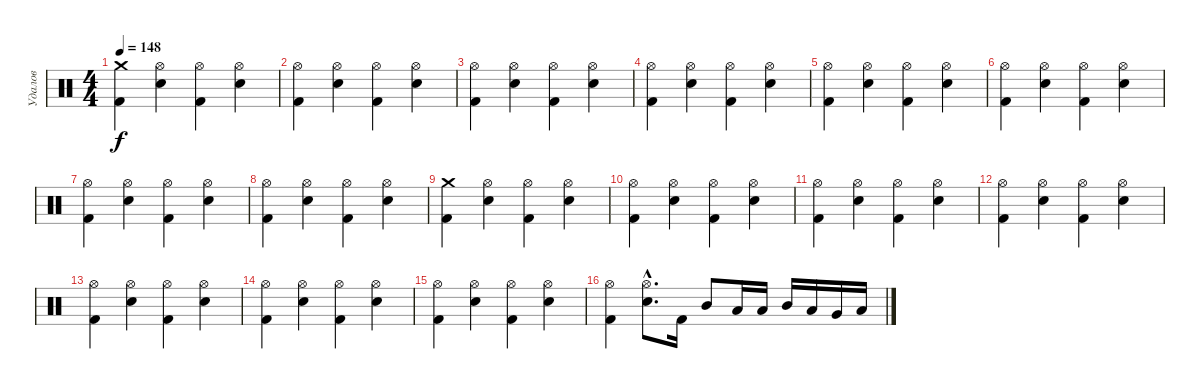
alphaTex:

\track ("Удалов" "Удалов") {instrument percussion}
\staff {score}
\articulation defaults
\ts (4 4)
\tempo 148
\clef neutral
\ks c
("Kick (hit) 2" "Crash medium (hit)").4{dy f} ("Hi-Hat (open)" "Snare (hit) 2").4 ("Hi-Hat (open)" "Kick (hit) 2").4 ("Hi-Hat (open)" "Snare (hit) 2").4 |
("Kick (hit) 2" "Hi-Hat (open)").4 ("Snare (hit) 2" "Hi-Hat (open)").4 ("Kick (hit) 2" "Hi-Hat (open)").4 ("Snare (hit) 2" "Hi-Hat (open)").4 |
("Kick (hit) 2" "Hi-Hat (open)").4 ("Snare (hit) 2" "Hi-Hat (open)").4 ("Kick (hit) 2" "Hi-Hat (open)").4 ("Snare (hit) 2" "Hi-Hat (open)").4 |
("Kick (hit) 2" "Hi-Hat (open)").4 ("Snare (hit) 2" "Hi-Hat (open)").4 ("Kick (hit) 2" "Hi-Hat (open)").4 ("Snare (hit) 2" "Hi-Hat (open)").4 |
("Kick (hit) 2" "Hi-Hat (open)").4 ("Snare (hit) 2" "Hi-Hat (open)").4 ("Kick (hit) 2" "Hi-Hat (open)").4 ("Snare (hit) 2" "Hi-Hat (open)").4 |
("Kick (hit) 2" "Hi-Hat (open)").4 ("Snare (hit) 2" "Hi-Hat (open)").4 ("Kick (hit) 2" "Hi-Hat (open)").4 ("Snare (hit) 2" "Hi-Hat (open)").4 |
("Kick (hit) 2" "Hi-Hat (open)").4 ("Snare (hit) 2" "Hi-Hat (open)").4 ("Kick (hit) 2" "Hi-Hat (open)").4 ("Snare (hit) 2" "Hi-Hat (open)").4 |
("Kick (hit) 2" "Hi-Hat (open)").4 ("Snare (hit) 2" "Hi-Hat (open)").4 ("Kick (hit) 2" "Hi-Hat (open)").4 ("Snare (hit) 2" "Hi-Hat (open)").4 |
("Kick (hit) 2" "Crash medium (hit)").4 ("Snare (hit) 2" "Hi-Hat (open)").4 ("Kick (hit) 2" "Hi-Hat (open)").4 ("Snare (hit) 2" "Hi-Hat (open)").4 |
("Kick (hit) 2" "Hi-Hat (open)").4 ("Snare (hit) 2" "Hi-Hat (open)").4 ("Kick (hit) 2" "Hi-Hat (open)").4 ("Snare (hit) 2" "Hi-Hat (open)").4 |
("Kick (hit) 2" "Hi-Hat (open)").4 ("Snare (hit) 2" "Hi-Hat (open)").4 ("Kick (hit) 2" "Hi-Hat (open)").4 ("Snare (hit) 2" "Hi-Hat (open)").4 |
("Kick (hit) 2" "Hi-Hat (open)").4 ("Snare (hit) 2" "Hi-Hat (open)").4 ("Kick (hit) 2" "Hi-Hat (open)").4 ("Snare (hit) 2" "Hi-Hat (open)").4 |
("Kick (hit) 2" "Hi-Hat (open)").4 ("Snare (hit) 2" "Hi-Hat (open)").4 ("Kick (hit) 2" "Hi-Hat (open)").4 ("Snare (hit) 2" "Hi-Hat (open)").4 |
("Kick (hit) 2" "Hi-Hat (open)").4 ("Snare (hit) 2" "Hi-Hat (open)").4 ("Kick (hit) 2" "Hi-Hat (open)").4 ("Snare (hit) 2" "Hi-Hat (open)").4 |
("Kick (hit) 2" "Hi-Hat (open)").4 ("Snare (hit) 2" "Hi-Hat (open)").4 ("Kick (hit) 2" "Hi-Hat (open)").4 ("Snare (hit) 2" "Hi-Hat (open)").4 |
("Kick (hit) 2" "Hi-Hat (open)").4 ("Snare (hit) 2"{hac} "Hi-Hat (open)"{hac}).8{d} "Kick (hit) 2".16 "Mid Tom (hit)".8 "Low Tom (hit)".16 "Low Tom (hit)".16 "Mid Tom (hit)".16 "Low Tom (hit)".16 "Very Low Tom (hit)".16 "Low Floor Tom (hit)".16
